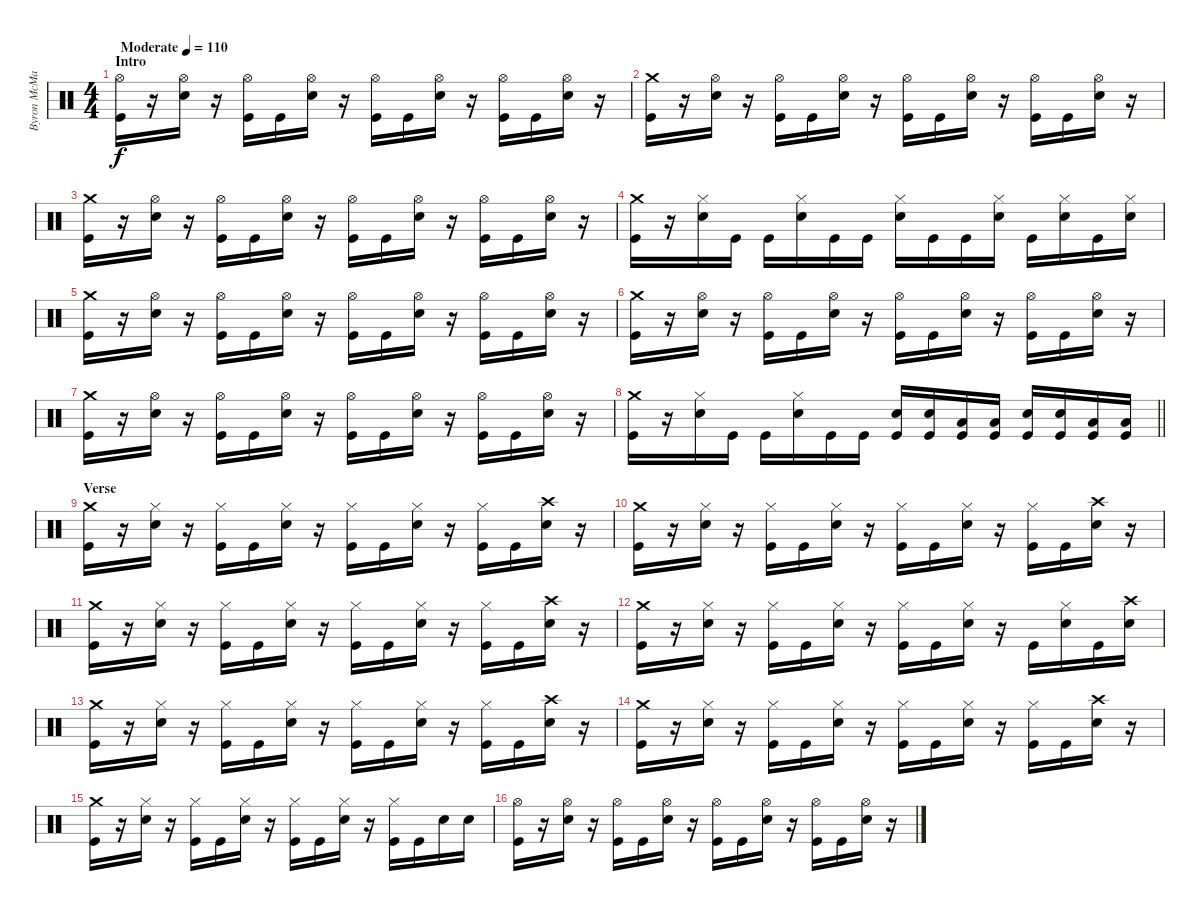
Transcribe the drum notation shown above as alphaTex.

\track ("Byron McMackin" "Byron McMa") {instrument percussion}
\staff {score}
\articulation defaults
\ts (4 4)
\section ("" "Intro")
\tempo (110 "Moderate")
\clef neutral
\ks c
("Hi-Hat (open)" "Kick (hit)").16{dy f} r.16 ("Hi-Hat (open)" "Electric Snare (hit)").16 r.16 ("Hi-Hat (open)" "Kick (hit)").16 "Kick (hit)".16 ("Hi-Hat (open)" "Electric Snare (hit)").16 r.16 ("Hi-Hat (open)" "Kick (hit)").16 "Kick (hit)".16 ("Hi-Hat (open)" "Electric Snare (hit)").16 r.16 ("Hi-Hat (open)" "Kick (hit)").16 "Kick (hit)".16 ("Hi-Hat (open)" "Electric Snare (hit)").16 r.16 |
("Crash medium (hit)" "Kick (hit)").16 r.16 ("Hi-Hat (open)" "Electric Snare (hit)").16 r.16 ("Hi-Hat (open)" "Kick (hit)").16 "Kick (hit)".16 ("Hi-Hat (open)" "Electric Snare (hit)").16 r.16 ("Hi-Hat (open)" "Kick (hit)").16 "Kick (hit)".16 ("Hi-Hat (open)" "Electric Snare (hit)").16 r.16 ("Hi-Hat (open)" "Kick (hit)").16 "Kick (hit)".16 ("Hi-Hat (open)" "Electric Snare (hit)").16 r.16 |
("Crash medium (hit)" "Kick (hit)").16 r.16 ("Hi-Hat (open)" "Electric Snare (hit)").16 r.16 ("Hi-Hat (open)" "Kick (hit)").16 "Kick (hit)".16 ("Hi-Hat (open)" "Electric Snare (hit)").16 r.16 ("Hi-Hat (open)" "Kick (hit)").16 "Kick (hit)".16 ("Hi-Hat (open)" "Electric Snare (hit)").16 r.16 ("Hi-Hat (open)" "Kick (hit)").16 "Kick (hit)".16 ("Hi-Hat (open)" "Electric Snare (hit)").16 r.16 |
("Crash medium (hit)" "Kick (hit)").16 r.16 ("Hi-Hat (closed)" "Electric Snare (hit)").16 "Kick (hit)".16 "Kick (hit)".16 ("Hi-Hat (closed)" "Electric Snare (hit)").16 "Kick (hit)".16 "Kick (hit)".16 ("Hi-Hat (closed)" "Electric Snare (hit)").16 "Kick (hit)".16 "Kick (hit)".16 ("Hi-Hat (closed)" "Electric Snare (hit)").16 "Kick (hit)".16 ("Hi-Hat (closed)" "Electric Snare (hit)").16 "Kick (hit)".16 ("Hi-Hat (closed)" "Electric Snare (hit)").16 |
("Crash medium (hit)" "Kick (hit)").16 r.16 ("Hi-Hat (open)" "Electric Snare (hit)").16 r.16 ("Hi-Hat (open)" "Kick (hit)").16 "Kick (hit)".16 ("Hi-Hat (open)" "Electric Snare (hit)").16 r.16 ("Hi-Hat (open)" "Kick (hit)").16 "Kick (hit)".16 ("Hi-Hat (open)" "Electric Snare (hit)").16 r.16 ("Hi-Hat (open)" "Kick (hit)").16 "Kick (hit)".16 ("Hi-Hat (open)" "Electric Snare (hit)").16 r.16 |
("Crash medium (hit)" "Kick (hit)").16 r.16 ("Hi-Hat (open)" "Electric Snare (hit)").16 r.16 ("Hi-Hat (open)" "Kick (hit)").16 "Kick (hit)".16 ("Hi-Hat (open)" "Electric Snare (hit)").16 r.16 ("Hi-Hat (open)" "Kick (hit)").16 "Kick (hit)".16 ("Hi-Hat (open)" "Electric Snare (hit)").16 r.16 ("Hi-Hat (open)" "Kick (hit)").16 "Kick (hit)".16 ("Hi-Hat (open)" "Electric Snare (hit)").16 r.16 |
("Crash medium (hit)" "Kick (hit)").16 r.16 ("Hi-Hat (open)" "Electric Snare (hit)").16 r.16 ("Hi-Hat (open)" "Kick (hit)").16 "Kick (hit)".16 ("Hi-Hat (open)" "Electric Snare (hit)").16 r.16 ("Hi-Hat (open)" "Kick (hit)").16 "Kick (hit)".16 ("Hi-Hat (open)" "Electric Snare (hit)").16 r.16 ("Hi-Hat (open)" "Kick (hit)").16 "Kick (hit)".16 ("Hi-Hat (open)" "Electric Snare (hit)").16 r.16 |
\barLineRight lightlight
("Crash medium (hit)" "Kick (hit)").16 r.16 ("Hi-Hat (closed)" "Electric Snare (hit)").16 "Kick (hit)".16 "Kick (hit)".16 ("Hi-Hat (closed)" "Electric Snare (hit)").16 "Kick (hit)".16 "Kick (hit)".16 ("Electric Snare (hit)" "Kick (hit)").16 ("Electric Snare (hit)" "Kick (hit)").16 ("Low Tom (hit)" "Kick (hit)").16 ("Low Tom (hit)" "Kick (hit)").16 ("Electric Snare (hit)" "Kick (hit)").16 ("Electric Snare (hit)" "Kick (hit)").16 ("Low Tom (hit)" "Kick (hit)").16 ("Low Tom (hit)" "Kick (hit)").16 |
\section ("" "Verse")
("Crash medium (hit)" "Kick (hit)").16 r.16 ("Hi-Hat (closed)" "Electric Snare (hit)").16 r.16 ("Hi-Hat (closed)" "Kick (hit)").16 "Kick (hit)".16 ("Hi-Hat (closed)" "Electric Snare (hit)").16 r.16 ("Hi-Hat (closed)" "Kick (hit)").16 "Kick (hit)".16 ("Hi-Hat (closed)" "Electric Snare (hit)").16 r.16 ("Hi-Hat (closed)" "Kick (hit)").16 "Kick (hit)".16 ("Crash high (hit)" "Electric Snare (hit)").16 r.16 |
("Crash medium (hit)" "Kick (hit)").16 r.16 ("Hi-Hat (closed)" "Electric Snare (hit)").16 r.16 ("Hi-Hat (closed)" "Kick (hit)").16 "Kick (hit)".16 ("Hi-Hat (closed)" "Electric Snare (hit)").16 r.16 ("Hi-Hat (closed)" "Kick (hit)").16 "Kick (hit)".16 ("Hi-Hat (closed)" "Electric Snare (hit)").16 r.16 ("Hi-Hat (closed)" "Kick (hit)").16 "Kick (hit)".16 ("Crash high (hit)" "Electric Snare (hit)").16 r.16 |
("Crash medium (hit)" "Kick (hit)").16 r.16 ("Hi-Hat (closed)" "Electric Snare (hit)").16 r.16 ("Hi-Hat (closed)" "Kick (hit)").16 "Kick (hit)".16 ("Hi-Hat (closed)" "Electric Snare (hit)").16 r.16 ("Hi-Hat (closed)" "Kick (hit)").16 "Kick (hit)".16 ("Hi-Hat (closed)" "Electric Snare (hit)").16 r.16 ("Hi-Hat (closed)" "Kick (hit)").16 "Kick (hit)".16 ("Crash high (hit)" "Electric Snare (hit)").16 r.16 |
("Crash medium (hit)" "Kick (hit)").16 r.16 ("Hi-Hat (closed)" "Electric Snare (hit)").16 r.16 ("Hi-Hat (closed)" "Kick (hit)").16 "Kick (hit)".16 ("Hi-Hat (closed)" "Electric Snare (hit)").16 r.16 ("Hi-Hat (closed)" "Kick (hit)").16 "Kick (hit)".16 ("Hi-Hat (closed)" "Electric Snare (hit)").16 r.16 "Kick (hit)".16 ("Hi-Hat (closed)" "Electric Snare (hit)").16 "Kick (hit)".16 ("Crash high (hit)" "Electric Snare (hit)").16 |
("Crash medium (hit)" "Kick (hit)").16 r.16 ("Hi-Hat (closed)" "Electric Snare (hit)").16 r.16 ("Hi-Hat (closed)" "Kick (hit)").16 "Kick (hit)".16 ("Hi-Hat (closed)" "Electric Snare (hit)").16 r.16 ("Hi-Hat (closed)" "Kick (hit)").16 "Kick (hit)".16 ("Hi-Hat (closed)" "Electric Snare (hit)").16 r.16 ("Hi-Hat (closed)" "Kick (hit)").16 "Kick (hit)".16 ("Crash high (hit)" "Electric Snare (hit)").16 r.16 |
("Crash medium (hit)" "Kick (hit)").16 r.16 ("Hi-Hat (closed)" "Electric Snare (hit)").16 r.16 ("Hi-Hat (closed)" "Kick (hit)").16 "Kick (hit)".16 ("Hi-Hat (closed)" "Electric Snare (hit)").16 r.16 ("Hi-Hat (closed)" "Kick (hit)").16 "Kick (hit)".16 ("Hi-Hat (closed)" "Electric Snare (hit)").16 r.16 ("Hi-Hat (closed)" "Kick (hit)").16 "Kick (hit)".16 ("Crash high (hit)" "Electric Snare (hit)").16 r.16 |
("Crash medium (hit)" "Kick (hit)").16 r.16 ("Hi-Hat (closed)" "Electric Snare (hit)").16 r.16 ("Hi-Hat (closed)" "Kick (hit)").16 "Kick (hit)".16 ("Hi-Hat (closed)" "Electric Snare (hit)").16 r.16 ("Hi-Hat (closed)" "Kick (hit)").16 "Kick (hit)".16 ("Hi-Hat (closed)" "Electric Snare (hit)").16 r.16 ("Hi-Hat (closed)" "Kick (hit)").16 "Kick (hit)".16 "Electric Snare (hit)".16 "Electric Snare (hit)".16 |
("Hi-Hat (open)" "Kick (hit)").16 r.16 ("Hi-Hat (open)" "Electric Snare (hit)").16 r.16 ("Hi-Hat (open)" "Kick (hit)").16 "Kick (hit)".16 ("Hi-Hat (open)" "Electric Snare (hit)").16 r.16 ("Hi-Hat (open)" "Kick (hit)").16 "Kick (hit)".16 ("Hi-Hat (open)" "Electric Snare (hit)").16 r.16 ("Hi-Hat (open)" "Kick (hit)").16 "Kick (hit)".16 ("Hi-Hat (open)" "Electric Snare (hit)").16 r.16
